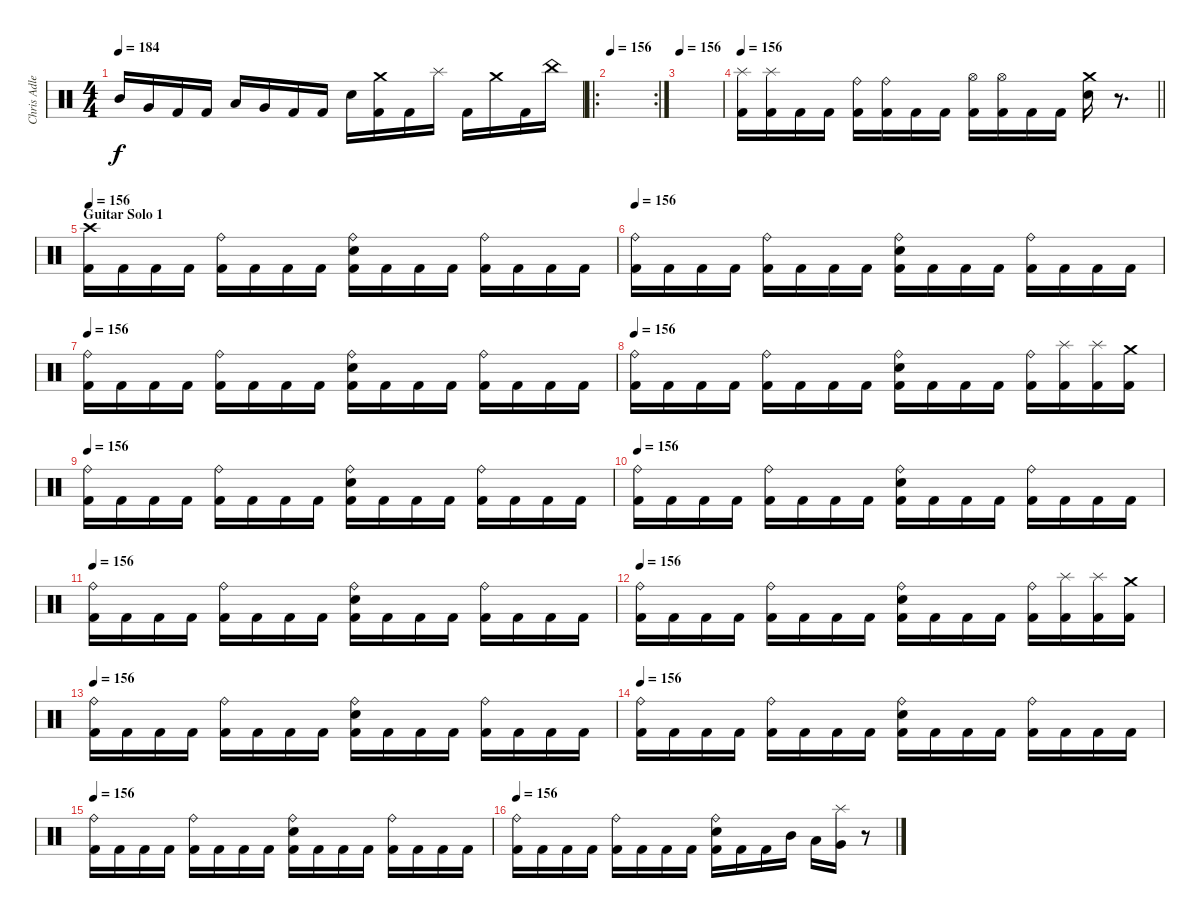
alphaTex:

\track ("Chris Adler" "Chris Adle") {instrument percussion}
\staff {score}
\articulation defaults
\ts (4 4)
\tempo 184
\clef neutral
\ks c "Mid Tom (hit)".16{dy f} "Very Low Tom (hit)".16 "Kick (hit) 2".16 "Kick (hit) 2".16 "Low Tom (hit)".16 "Very Low Tom (hit)".16 "Kick (hit) 2".16 "Kick (hit) 2".16 "Electric Snare (hit)".16
("Crash medium (hit)" "Kick (hit) 2").16 "Kick (hit) 2".16 "Splash (hit)".16 "Kick (hit) 2".16 "Crash medium (hit)".16 "Kick (hit) 2".16 "China (hit)".16 |
\ro
\rc 2
\tempo 156
|
\tempo 156
|
\tempo 156
\barLineRight lightlight
("Splash (hit)" "Kick (hit) 2").16 ("Splash (hit)" "Kick (hit) 2").16 "Kick (hit) 2".16 "Kick (hit) 2".16 ("Ride (bell)" "Kick (hit) 2").16 ("Ride (bell)" "Kick (hit) 2").16 "Kick (hit) 2".16 "Kick (hit) 2".16 ("Hi-Hat (open)" "Kick (hit) 2").16 ("Hi-Hat (open)" "Kick (hit) 2").16 "Kick (hit) 2".16 "Kick (hit) 2".16 ("Crash medium (hit)" "Electric Snare (hit)").16 r.8{d} |
\section ("" "Guitar Solo 1")
\tempo 156
("Crash high (hit)" "Kick (hit) 2").16 "Kick (hit) 2".16 "Kick (hit) 2".16 "Kick (hit) 2".16 ("Ride (bell)" "Kick (hit) 2").16 "Kick (hit) 2".16 "Kick (hit) 2".16 "Kick (hit) 2".16 ("Ride (bell)" "Electric Snare (hit)" "Kick (hit) 2").16 "Kick (hit) 2".16 "Kick (hit) 2".16 "Kick (hit) 2".16 ("Ride (bell)" "Kick (hit) 2").16 "Kick (hit) 2".16 "Kick (hit) 2".16 "Kick (hit) 2".16 |
\tempo 156
("Ride (bell)" "Kick (hit) 2").16 "Kick (hit) 2".16 "Kick (hit) 2".16 "Kick (hit) 2".16 ("Ride (bell)" "Kick (hit) 2").16 "Kick (hit) 2".16 "Kick (hit) 2".16 "Kick (hit) 2".16 ("Ride (bell)" "Electric Snare (hit)" "Kick (hit) 2").16 "Kick (hit) 2".16 "Kick (hit) 2".16 "Kick (hit) 2".16 ("Ride (bell)" "Kick (hit) 2").16 "Kick (hit) 2".16 "Kick (hit) 2".16 "Kick (hit) 2".16 |
\tempo 156
("Ride (bell)" "Kick (hit) 2").16 "Kick (hit) 2".16 "Kick (hit) 2".16 "Kick (hit) 2".16 ("Ride (bell)" "Kick (hit) 2").16 "Kick (hit) 2".16 "Kick (hit) 2".16 "Kick (hit) 2".16 ("Ride (bell)" "Electric Snare (hit)" "Kick (hit) 2").16 "Kick (hit) 2".16 "Kick (hit) 2".16 "Kick (hit) 2".16 ("Ride (bell)" "Kick (hit) 2").16 "Kick (hit) 2".16 "Kick (hit) 2".16 "Kick (hit) 2".16 |
\tempo 156
("Ride (bell)" "Kick (hit) 2").16 "Kick (hit) 2".16 "Kick (hit) 2".16 "Kick (hit) 2".16 ("Ride (bell)" "Kick (hit) 2").16 "Kick (hit) 2".16 "Kick (hit) 2".16 "Kick (hit) 2".16 ("Ride (bell)" "Electric Snare (hit)" "Kick (hit) 2").16 "Kick (hit) 2".16 "Kick (hit) 2".16 "Kick (hit) 2".16 ("Ride (bell)" "Kick (hit) 2").16 ("Splash (hit)" "Kick (hit) 2").16 ("Splash (hit)" "Kick (hit) 2").16 ("Crash medium (hit)" "Kick (hit) 2").16 |
\tempo 156
("Ride (bell)" "Kick (hit) 2").16 "Kick (hit) 2".16 "Kick (hit) 2".16 "Kick (hit) 2".16 ("Ride (bell)" "Kick (hit) 2").16 "Kick (hit) 2".16 "Kick (hit) 2".16 "Kick (hit) 2".16 ("Ride (bell)" "Electric Snare (hit)" "Kick (hit) 2").16 "Kick (hit) 2".16 "Kick (hit) 2".16 "Kick (hit) 2".16 ("Ride (bell)" "Kick (hit) 2").16 "Kick (hit) 2".16 "Kick (hit) 2".16 "Kick (hit) 2".16 |
\tempo 156
("Ride (bell)" "Kick (hit) 2").16 "Kick (hit) 2".16 "Kick (hit) 2".16 "Kick (hit) 2".16 ("Ride (bell)" "Kick (hit) 2").16 "Kick (hit) 2".16 "Kick (hit) 2".16 "Kick (hit) 2".16 ("Ride (bell)" "Electric Snare (hit)" "Kick (hit) 2").16 "Kick (hit) 2".16 "Kick (hit) 2".16 "Kick (hit) 2".16 ("Ride (bell)" "Kick (hit) 2").16 "Kick (hit) 2".16 "Kick (hit) 2".16 "Kick (hit) 2".16 |
\tempo 156
("Ride (bell)" "Kick (hit) 2").16 "Kick (hit) 2".16 "Kick (hit) 2".16 "Kick (hit) 2".16 ("Ride (bell)" "Kick (hit) 2").16 "Kick (hit) 2".16 "Kick (hit) 2".16 "Kick (hit) 2".16 ("Ride (bell)" "Electric Snare (hit)" "Kick (hit) 2").16 "Kick (hit) 2".16 "Kick (hit) 2".16 "Kick (hit) 2".16 ("Ride (bell)" "Kick (hit) 2").16 "Kick (hit) 2".16 "Kick (hit) 2".16 "Kick (hit) 2".16 |
\tempo 156
("Ride (bell)" "Kick (hit) 2").16 "Kick (hit) 2".16 "Kick (hit) 2".16 "Kick (hit) 2".16 ("Ride (bell)" "Kick (hit) 2").16 "Kick (hit) 2".16 "Kick (hit) 2".16 "Kick (hit) 2".16 ("Ride (bell)" "Electric Snare (hit)" "Kick (hit) 2").16 "Kick (hit) 2".16 "Kick (hit) 2".16 "Kick (hit) 2".16 ("Ride (bell)" "Kick (hit) 2").16 ("Splash (hit)" "Kick (hit) 2").16 ("Splash (hit)" "Kick (hit) 2").16 ("Crash medium (hit)" "Kick (hit) 2").16 |
\tempo 156
("Ride (bell)" "Kick (hit) 2").16 "Kick (hit) 2".16 "Kick (hit) 2".16 "Kick (hit) 2".16 ("Ride (bell)" "Kick (hit) 2").16 "Kick (hit) 2".16 "Kick (hit) 2".16 "Kick (hit) 2".16 ("Ride (bell)" "Electric Snare (hit)" "Kick (hit) 2").16 "Kick (hit) 2".16 "Kick (hit) 2".16 "Kick (hit) 2".16 ("Ride (bell)" "Kick (hit) 2").16 "Kick (hit) 2".16 "Kick (hit) 2".16 "Kick (hit) 2".16 |
\tempo 156
("Ride (bell)" "Kick (hit) 2").16 "Kick (hit) 2".16 "Kick (hit) 2".16 "Kick (hit) 2".16 ("Ride (bell)" "Kick (hit) 2").16 "Kick (hit) 2".16 "Kick (hit) 2".16 "Kick (hit) 2".16 ("Ride (bell)" "Electric Snare (hit)" "Kick (hit) 2").16 "Kick (hit) 2".16 "Kick (hit) 2".16 "Kick (hit) 2".16 ("Ride (bell)" "Kick (hit) 2").16 "Kick (hit) 2".16 "Kick (hit) 2".16 "Kick (hit) 2".16 |
\tempo 156
("Ride (bell)" "Kick (hit) 2").16 "Kick (hit) 2".16 "Kick (hit) 2".16 "Kick (hit) 2".16 ("Ride (bell)" "Kick (hit) 2").16 "Kick (hit) 2".16 "Kick (hit) 2".16 "Kick (hit) 2".16 ("Ride (bell)" "Electric Snare (hit)" "Kick (hit) 2").16 "Kick (hit) 2".16 "Kick (hit) 2".16 "Kick (hit) 2".16 ("Ride (bell)" "Kick (hit) 2").16 "Kick (hit) 2".16 "Kick (hit) 2".16 "Kick (hit) 2".16 |
\tempo 156
("Ride (bell)" "Kick (hit) 2").16 "Kick (hit) 2".16 "Kick (hit) 2".16 "Kick (hit) 2".16 ("Ride (bell)" "Kick (hit) 2").16 "Kick (hit) 2".16 "Kick (hit) 2".16 "Kick (hit) 2".16 ("Ride (bell)" "Electric Snare (hit)" "Kick (hit) 2").16 "Kick (hit) 2".16 "Kick (hit) 2".16 "Mid Tom (hit)".16 "Low Tom (hit)".16 ("Splash (hit)" "Very Low Tom (hit)").16 r.8
